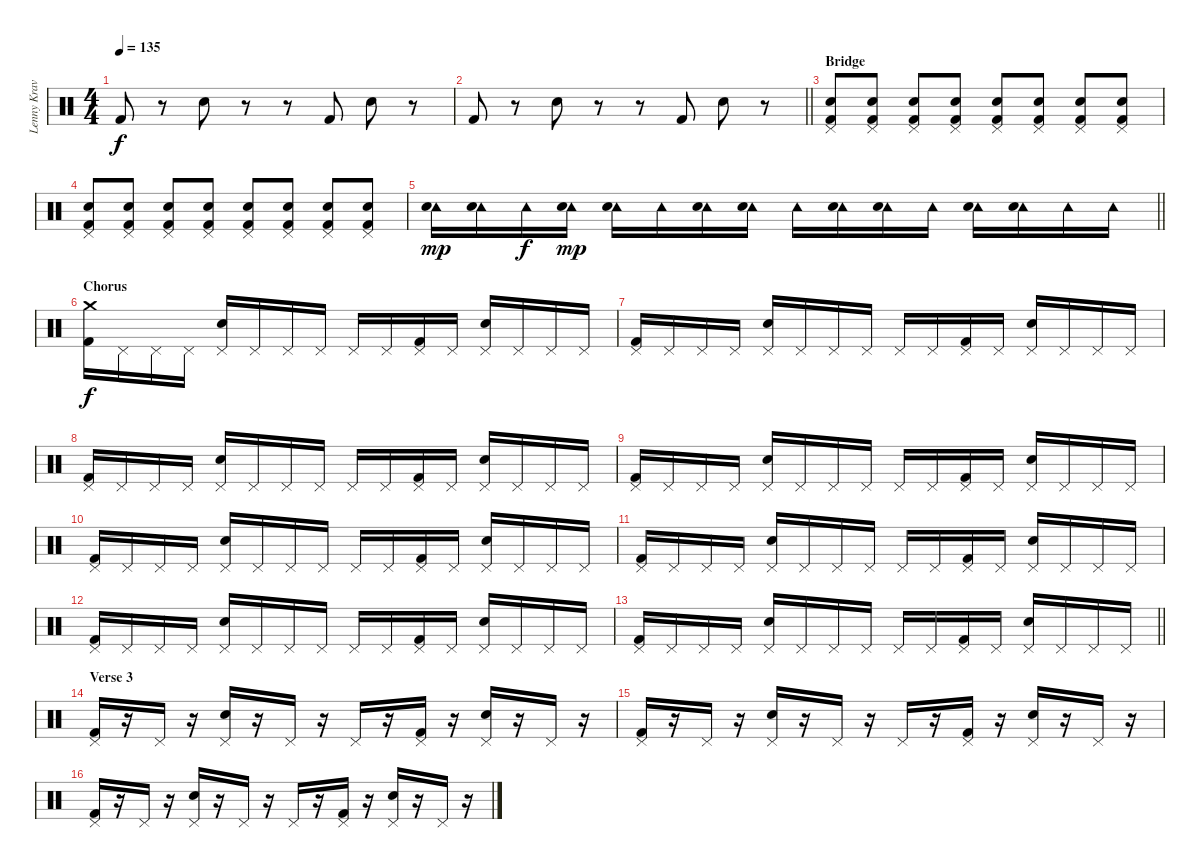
\track ("Lenny Kravitz (drums)" "Lenny Krav") {instrument percussion}
\staff {score}
\articulation defaults
\ts (4 4)
\tempo 135
\clef neutral
\ks c "Kick (hit) 2".8{dy f}
r.8 "Electric Snare (hit)".8 r.8 r.8 "Kick (hit) 2".8 "Electric Snare (hit)".8 r.8 |
\barLineRight lightlight "Kick (hit) 2".8
r.8 "Electric Snare (hit)".8 r.8 r.8 "Kick (hit) 2".8 "Electric Snare (hit)".8 r.8 |
\section ("" "Bridge")
("Pedal Hi-Hat (hit)" "Electric Snare (hit)" "Kick (hit) 2").8 ("Pedal Hi-Hat (hit)" "Electric Snare (hit)" "Kick (hit) 2").8 ("Pedal Hi-Hat (hit)" "Electric Snare (hit)" "Kick (hit) 2").8 ("Pedal Hi-Hat (hit)" "Electric Snare (hit)" "Kick (hit) 2").8 ("Pedal Hi-Hat (hit)" "Electric Snare (hit)" "Kick (hit) 2").8 ("Pedal Hi-Hat (hit)" "Electric Snare (hit)" "Kick (hit) 2").8 ("Pedal Hi-Hat (hit)" "Electric Snare (hit)" "Kick (hit) 2").8 ("Pedal Hi-Hat (hit)" "Electric Snare (hit)" "Kick (hit) 2").8 |
("Pedal Hi-Hat (hit)" "Electric Snare (hit)" "Kick (hit) 2").8 ("Pedal Hi-Hat (hit)" "Electric Snare (hit)" "Kick (hit) 2").8 ("Pedal Hi-Hat (hit)" "Electric Snare (hit)" "Kick (hit) 2").8 ("Pedal Hi-Hat (hit)" "Electric Snare (hit)" "Kick (hit) 2").8 ("Pedal Hi-Hat (hit)" "Electric Snare (hit)" "Kick (hit) 2").8 ("Pedal Hi-Hat (hit)" "Electric Snare (hit)" "Kick (hit) 2").8 ("Pedal Hi-Hat (hit)" "Electric Snare (hit)" "Kick (hit) 2").8 ("Pedal Hi-Hat (hit)" "Electric Snare (hit)" "Kick (hit) 2").8 |
\barLineRight lightlight
("Tambourine (hit)" "Electric Snare (hit)").16{dy mp} ("Tambourine (hit)" "Electric Snare (hit)").16 "Tambourine (hit)".16{dy f} ("Tambourine (hit)" "Electric Snare (hit)").16{dy mp} ("Tambourine (hit)" "Electric Snare (hit)").16 "Tambourine (hit)".16 ("Tambourine (hit)" "Electric Snare (hit)").16 ("Tambourine (hit)" "Electric Snare (hit)").16 "Tambourine (hit)".16 ("Tambourine (hit)" "Electric Snare (hit)").16 ("Tambourine (hit)" "Electric Snare (hit)").16 "Tambourine (hit)".16 ("Tambourine (hit)" "Electric Snare (hit)").16 ("Tambourine (hit)" "Electric Snare (hit)").16 "Tambourine (hit)".16 "Tambourine (hit)".16 |
\section ("" "Chorus")
("Crash medium (hit)" "Kick (hit) 2").16{dy f} "Pedal Hi-Hat (hit)".16 "Pedal Hi-Hat (hit)".16 "Pedal Hi-Hat (hit)".16 ("Pedal Hi-Hat (hit)" "Electric Snare (hit)").16 "Pedal Hi-Hat (hit)".16 "Pedal Hi-Hat (hit)".16 "Pedal Hi-Hat (hit)".16 "Pedal Hi-Hat (hit)".16 "Pedal Hi-Hat (hit)".16 ("Pedal Hi-Hat (hit)" "Kick (hit) 2").16 "Pedal Hi-Hat (hit)".16 ("Pedal Hi-Hat (hit)" "Electric Snare (hit)").16 "Pedal Hi-Hat (hit)".16 "Pedal Hi-Hat (hit)".16 "Pedal Hi-Hat (hit)".16 |
("Pedal Hi-Hat (hit)" "Kick (hit) 2").16 "Pedal Hi-Hat (hit)".16 "Pedal Hi-Hat (hit)".16 "Pedal Hi-Hat (hit)".16 ("Pedal Hi-Hat (hit)" "Electric Snare (hit)").16 "Pedal Hi-Hat (hit)".16 "Pedal Hi-Hat (hit)".16 "Pedal Hi-Hat (hit)".16 "Pedal Hi-Hat (hit)".16 "Pedal Hi-Hat (hit)".16 ("Pedal Hi-Hat (hit)" "Kick (hit) 2").16 "Pedal Hi-Hat (hit)".16 ("Pedal Hi-Hat (hit)" "Electric Snare (hit)").16 "Pedal Hi-Hat (hit)".16 "Pedal Hi-Hat (hit)".16 "Pedal Hi-Hat (hit)".16 |
("Pedal Hi-Hat (hit)" "Kick (hit) 2").16 "Pedal Hi-Hat (hit)".16 "Pedal Hi-Hat (hit)".16 "Pedal Hi-Hat (hit)".16 ("Pedal Hi-Hat (hit)" "Electric Snare (hit)").16 "Pedal Hi-Hat (hit)".16 "Pedal Hi-Hat (hit)".16 "Pedal Hi-Hat (hit)".16 "Pedal Hi-Hat (hit)".16 "Pedal Hi-Hat (hit)".16 ("Pedal Hi-Hat (hit)" "Kick (hit) 2").16 "Pedal Hi-Hat (hit)".16 ("Pedal Hi-Hat (hit)" "Electric Snare (hit)").16 "Pedal Hi-Hat (hit)".16 "Pedal Hi-Hat (hit)".16 "Pedal Hi-Hat (hit)".16 |
("Pedal Hi-Hat (hit)" "Kick (hit) 2").16 "Pedal Hi-Hat (hit)".16 "Pedal Hi-Hat (hit)".16 "Pedal Hi-Hat (hit)".16 ("Pedal Hi-Hat (hit)" "Electric Snare (hit)").16 "Pedal Hi-Hat (hit)".16 "Pedal Hi-Hat (hit)".16 "Pedal Hi-Hat (hit)".16 "Pedal Hi-Hat (hit)".16 "Pedal Hi-Hat (hit)".16 ("Pedal Hi-Hat (hit)" "Kick (hit) 2").16 "Pedal Hi-Hat (hit)".16 ("Pedal Hi-Hat (hit)" "Electric Snare (hit)").16 "Pedal Hi-Hat (hit)".16 "Pedal Hi-Hat (hit)".16 "Pedal Hi-Hat (hit)".16 |
("Pedal Hi-Hat (hit)" "Kick (hit) 2").16 "Pedal Hi-Hat (hit)".16 "Pedal Hi-Hat (hit)".16 "Pedal Hi-Hat (hit)".16 ("Pedal Hi-Hat (hit)" "Electric Snare (hit)").16 "Pedal Hi-Hat (hit)".16 "Pedal Hi-Hat (hit)".16 "Pedal Hi-Hat (hit)".16 "Pedal Hi-Hat (hit)".16 "Pedal Hi-Hat (hit)".16 ("Pedal Hi-Hat (hit)" "Kick (hit) 2").16 "Pedal Hi-Hat (hit)".16 ("Pedal Hi-Hat (hit)" "Electric Snare (hit)").16 "Pedal Hi-Hat (hit)".16 "Pedal Hi-Hat (hit)".16 "Pedal Hi-Hat (hit)".16 |
("Pedal Hi-Hat (hit)" "Kick (hit) 2").16 "Pedal Hi-Hat (hit)".16 "Pedal Hi-Hat (hit)".16 "Pedal Hi-Hat (hit)".16 ("Pedal Hi-Hat (hit)" "Electric Snare (hit)").16 "Pedal Hi-Hat (hit)".16 "Pedal Hi-Hat (hit)".16 "Pedal Hi-Hat (hit)".16 "Pedal Hi-Hat (hit)".16 "Pedal Hi-Hat (hit)".16 ("Pedal Hi-Hat (hit)" "Kick (hit) 2").16 "Pedal Hi-Hat (hit)".16 ("Pedal Hi-Hat (hit)" "Electric Snare (hit)").16 "Pedal Hi-Hat (hit)".16 "Pedal Hi-Hat (hit)".16 "Pedal Hi-Hat (hit)".16 |
("Pedal Hi-Hat (hit)" "Kick (hit) 2").16 "Pedal Hi-Hat (hit)".16 "Pedal Hi-Hat (hit)".16 "Pedal Hi-Hat (hit)".16 ("Pedal Hi-Hat (hit)" "Electric Snare (hit)").16 "Pedal Hi-Hat (hit)".16 "Pedal Hi-Hat (hit)".16 "Pedal Hi-Hat (hit)".16 "Pedal Hi-Hat (hit)".16 "Pedal Hi-Hat (hit)".16 ("Pedal Hi-Hat (hit)" "Kick (hit) 2").16 "Pedal Hi-Hat (hit)".16 ("Pedal Hi-Hat (hit)" "Electric Snare (hit)").16 "Pedal Hi-Hat (hit)".16 "Pedal Hi-Hat (hit)".16 "Pedal Hi-Hat (hit)".16 |
\barLineRight lightlight
("Pedal Hi-Hat (hit)" "Kick (hit) 2").16 "Pedal Hi-Hat (hit)".16 "Pedal Hi-Hat (hit)".16 "Pedal Hi-Hat (hit)".16 ("Pedal Hi-Hat (hit)" "Electric Snare (hit)").16 "Pedal Hi-Hat (hit)".16 "Pedal Hi-Hat (hit)".16 "Pedal Hi-Hat (hit)".16 "Pedal Hi-Hat (hit)".16 "Pedal Hi-Hat (hit)".16 ("Pedal Hi-Hat (hit)" "Kick (hit) 2").16 "Pedal Hi-Hat (hit)".16 ("Pedal Hi-Hat (hit)" "Electric Snare (hit)").16 "Pedal Hi-Hat (hit)".16 "Pedal Hi-Hat (hit)".16 "Pedal Hi-Hat (hit)".16 |
\section ("" "Verse 3")
("Pedal Hi-Hat (hit)" "Kick (hit) 2").16 r.16 "Pedal Hi-Hat (hit)".16 r.16 ("Pedal Hi-Hat (hit)" "Electric Snare (hit)").16 r.16 "Pedal Hi-Hat (hit)".16 r.16 "Pedal Hi-Hat (hit)".16 r.16 ("Pedal Hi-Hat (hit)" "Kick (hit) 2").16 r.16 ("Pedal Hi-Hat (hit)" "Electric Snare (hit)").16 r.16 "Pedal Hi-Hat (hit)".16 r.16 |
("Pedal Hi-Hat (hit)" "Kick (hit) 2").16 r.16 "Pedal Hi-Hat (hit)".16 r.16 ("Pedal Hi-Hat (hit)" "Electric Snare (hit)").16 r.16 "Pedal Hi-Hat (hit)".16 r.16 "Pedal Hi-Hat (hit)".16 r.16 ("Pedal Hi-Hat (hit)" "Kick (hit) 2").16 r.16 ("Pedal Hi-Hat (hit)" "Electric Snare (hit)").16 r.16 "Pedal Hi-Hat (hit)".16 r.16 |
("Pedal Hi-Hat (hit)" "Kick (hit) 2").16 r.16 "Pedal Hi-Hat (hit)".16 r.16 ("Pedal Hi-Hat (hit)" "Electric Snare (hit)").16 r.16 "Pedal Hi-Hat (hit)".16 r.16 "Pedal Hi-Hat (hit)".16 r.16 ("Pedal Hi-Hat (hit)" "Kick (hit) 2").16 r.16 ("Pedal Hi-Hat (hit)" "Electric Snare (hit)").16 r.16 "Pedal Hi-Hat (hit)".16 r.16
